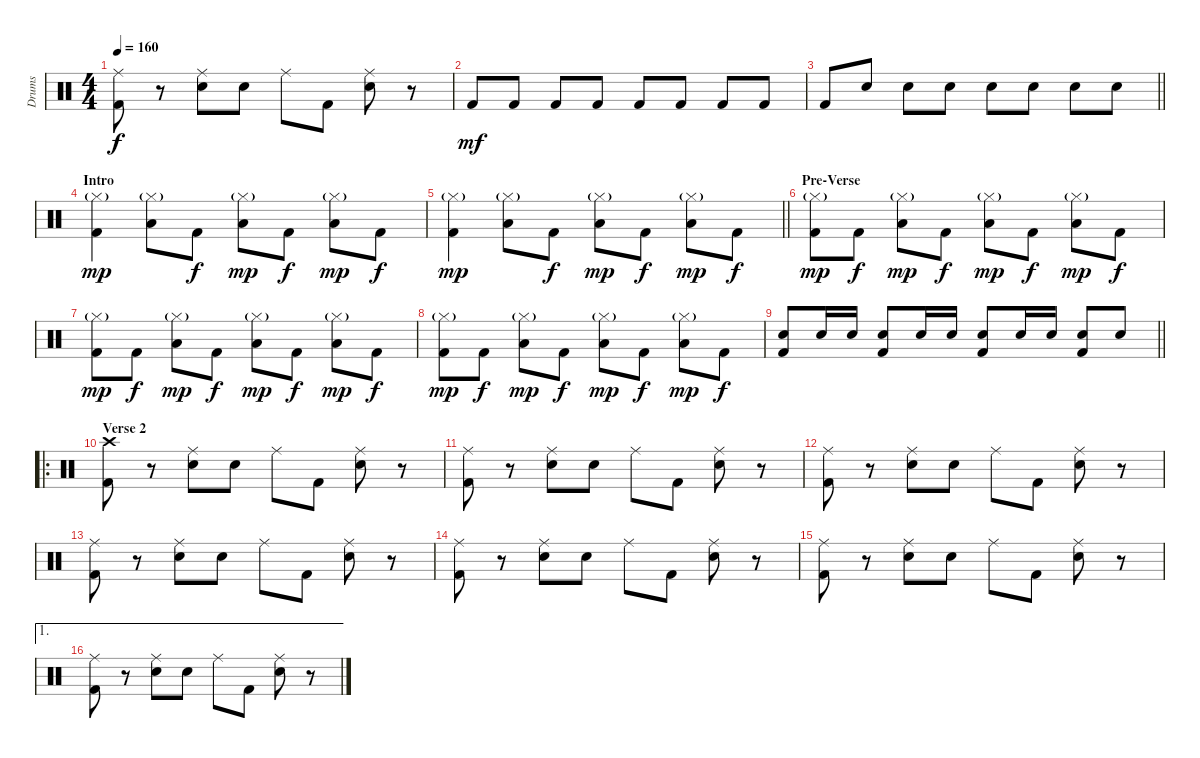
\track ("Drums" "Drums") {instrument percussion}
\staff {score}
\articulation defaults
\ts (4 4)
\tempo 160
\clef neutral
\ks c
("Ride (middle)" "Kick (hit) 2").8{dy f} r.8 ("Ride (middle)" "Snare (hit) 2").8 "Snare (hit) 2".8 "Ride (middle)".8 "Kick (hit) 2".8 ("Ride (middle)" "Snare (hit) 2").8 r.8 |
"Kick (hit) 2".8{dy mf} "Kick (hit) 2".8 "Kick (hit) 2".8 "Kick (hit) 2".8 "Kick (hit) 2".8 "Kick (hit) 2".8 "Kick (hit) 2".8 "Kick (hit) 2".8 |
\barLineRight lightlight "Kick (hit) 2".8 "Snare (hit) 2".8 "Snare (hit) 2".8 "Snare (hit) 2".8 "Snare (hit) 2".8 "Snare (hit) 2".8 "Snare (hit) 2".8 "Snare (hit) 2".8
|
\section ("" "Intro")
("Hi-Hat (closed)"{g} "Kick (hit) 2").4{dy mp} ("Hi-Hat (closed)"{g} "Low Floor Tom (hit)").8 "Kick (hit) 2".8{dy f} ("Hi-Hat (closed)"{g} "Low Tom (hit)").8{dy mp} "Kick (hit) 2".8{dy f} ("Hi-Hat (closed)"{g} "Low Floor Tom (hit)").8{dy mp} "Kick (hit) 2".8{dy f} |
\barLineRight lightlight
("Hi-Hat (closed)"{g} "Kick (hit) 2").4{dy mp} ("Hi-Hat (closed)"{g} "Low Floor Tom (hit)").8 "Kick (hit) 2".8{dy f} ("Hi-Hat (closed)"{g} "Low Tom (hit)").8{dy mp} "Kick (hit) 2".8{dy f} ("Hi-Hat (closed)"{g} "Low Floor Tom (hit)").8{dy mp} "Kick (hit) 2".8{dy f} |
\section ("" "Pre-Verse")
("Hi-Hat (closed)"{g} "Kick (hit) 2").8{dy mp} "Kick (hit) 2".8{dy f} ("Hi-Hat (closed)"{g} "Low Floor Tom (hit)").8{dy mp} "Kick (hit) 2".8{dy f} ("Hi-Hat (closed)"{g} "Low Tom (hit)").8{dy mp} "Kick (hit) 2".8{dy f} ("Hi-Hat (closed)"{g} "Low Floor Tom (hit)").8{dy mp} "Kick (hit) 2".8{dy f} |
("Hi-Hat (closed)"{g} "Kick (hit) 2").8{dy mp} "Kick (hit) 2".8{dy f} ("Hi-Hat (closed)"{g} "Low Floor Tom (hit)").8{dy mp} "Kick (hit) 2".8{dy f} ("Hi-Hat (closed)"{g} "Low Tom (hit)").8{dy mp} "Kick (hit) 2".8{dy f} ("Hi-Hat (closed)"{g} "Low Floor Tom (hit)").8{dy mp} "Kick (hit) 2".8{dy f} |
("Hi-Hat (closed)"{g} "Kick (hit) 2").8{dy mp} "Kick (hit) 2".8{dy f} ("Hi-Hat (closed)"{g} "Low Floor Tom (hit)").8{dy mp} "Kick (hit) 2".8{dy f} ("Hi-Hat (closed)"{g} "Low Tom (hit)").8{dy mp} "Kick (hit) 2".8{dy f} ("Hi-Hat (closed)"{g} "Low Floor Tom (hit)").8{dy mp} "Kick (hit) 2".8{dy f} |
\barLineRight lightlight
("Snare (hit) 2" "Kick (hit) 2").8 "Snare (hit) 2".16 "Snare (hit) 2".16 ("Snare (hit) 2" "Kick (hit) 2").8 "Snare (hit) 2".16 "Snare (hit) 2".16 ("Snare (hit) 2" "Kick (hit) 2").8 "Snare (hit) 2".16 "Snare (hit) 2".16 ("Snare (hit) 2" "Kick (hit) 2").8 "Snare (hit) 2".8 |
\ro
\section ("" "Verse 2")
("Crash high (hit)" "Kick (hit) 2").8 r.8 ("Ride (middle)" "Snare (hit) 2").8 "Snare (hit) 2".8 "Ride (middle)".8 "Kick (hit) 2".8 ("Ride (middle)" "Snare (hit) 2").8 r.8 |
("Ride (middle)" "Kick (hit) 2").8 r.8 ("Ride (middle)" "Snare (hit) 2").8 "Snare (hit) 2".8 "Ride (middle)".8 "Kick (hit) 2".8 ("Ride (middle)" "Snare (hit) 2").8 r.8 |
("Ride (middle)" "Kick (hit) 2").8 r.8 ("Ride (middle)" "Snare (hit) 2").8 "Snare (hit) 2".8 "Ride (middle)".8 "Kick (hit) 2".8 ("Ride (middle)" "Snare (hit) 2").8 r.8 |
("Ride (middle)" "Kick (hit) 2").8 r.8 ("Ride (middle)" "Snare (hit) 2").8 "Snare (hit) 2".8 "Ride (middle)".8 "Kick (hit) 2".8 ("Ride (middle)" "Snare (hit) 2").8 r.8 |
("Ride (middle)" "Kick (hit) 2").8 r.8 ("Ride (middle)" "Snare (hit) 2").8 "Snare (hit) 2".8 "Ride (middle)".8 "Kick (hit) 2".8 ("Ride (middle)" "Snare (hit) 2").8 r.8 |
("Ride (middle)" "Kick (hit) 2").8 r.8 ("Ride (middle)" "Snare (hit) 2").8 "Snare (hit) 2".8 "Ride (middle)".8 "Kick (hit) 2".8 ("Ride (middle)" "Snare (hit) 2").8 r.8 |
\ae 1
("Ride (middle)" "Kick (hit) 2").8 r.8 ("Ride (middle)" "Snare (hit) 2").8 "Snare (hit) 2".8 "Ride (middle)".8 "Kick (hit) 2".8 ("Ride (middle)" "Snare (hit) 2").8 r.8
